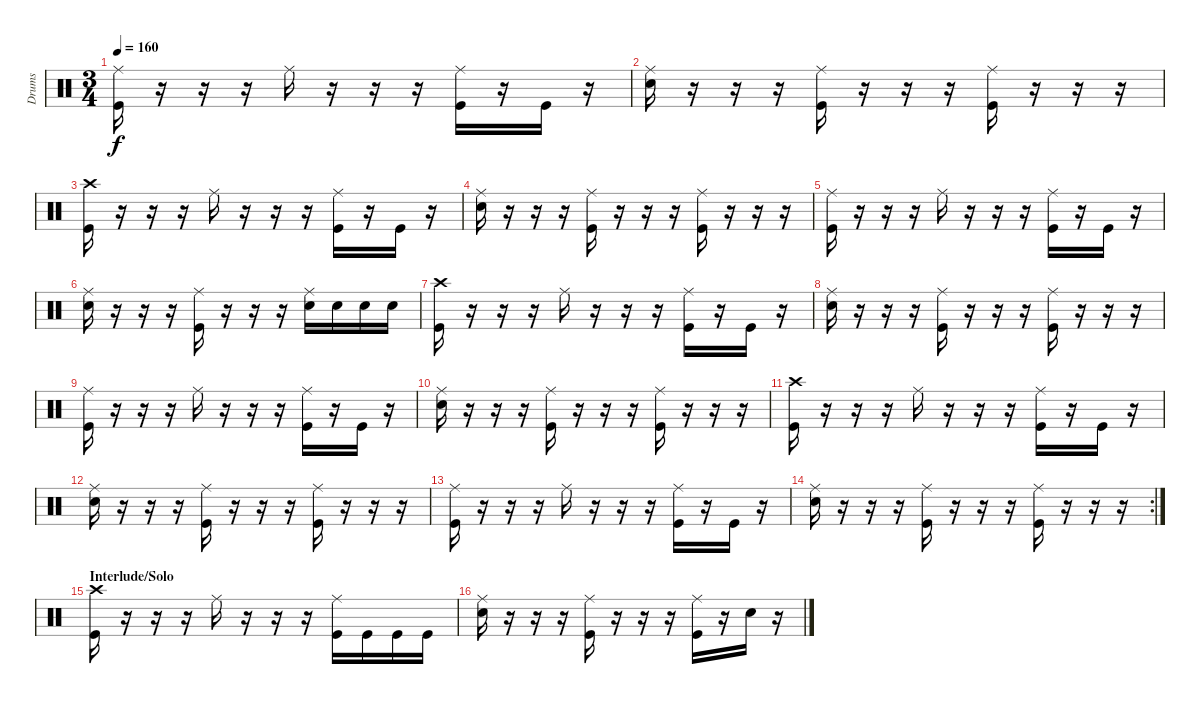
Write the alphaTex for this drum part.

\track ("Drums" "Drums") {instrument percussion}
\staff {score}
\articulation defaults
\ts (3 4)
\tempo 160
\clef neutral
\ks c
("Ride (middle)" "Kick (hit)").16{dy f} r.16 r.16 r.16 "Ride (middle)".16 r.16 r.16 r.16 ("Ride (middle)" "Kick (hit)").16 r.16 "Kick (hit)".16 r.16 |
("Ride (middle)" "Snare (hit) 2").16 r.16 r.16 r.16 ("Ride (middle)" "Kick (hit)").16 r.16 r.16 r.16 ("Ride (middle)" "Kick (hit)").16 r.16 r.16 r.16 |
("Crash high (hit)" "Kick (hit)").16 r.16 r.16 r.16 "Ride (middle)".16 r.16 r.16 r.16 ("Ride (middle)" "Kick (hit)").16 r.16 "Kick (hit)".16 r.16 |
("Ride (middle)" "Snare (hit) 2").16 r.16 r.16 r.16 ("Ride (middle)" "Kick (hit)").16 r.16 r.16 r.16 ("Ride (middle)" "Kick (hit)").16 r.16 r.16 r.16 |
("Ride (middle)" "Kick (hit)").16 r.16 r.16 r.16 "Ride (middle)".16 r.16 r.16 r.16 ("Ride (middle)" "Kick (hit)").16 r.16 "Kick (hit)".16 r.16 |
("Ride (middle)" "Snare (hit) 2").16 r.16 r.16 r.16 ("Ride (middle)" "Kick (hit)").16 r.16 r.16 r.16 ("Ride (middle)" "Snare (hit) 2").16 "Snare (hit) 2".16 "Snare (hit) 2".16 "Snare (hit) 2".16 |
("Crash high (hit)" "Kick (hit)").16 r.16 r.16 r.16 "Ride (middle)".16 r.16 r.16 r.16 ("Ride (middle)" "Kick (hit)").16 r.16 "Kick (hit)".16 r.16 |
("Ride (middle)" "Snare (hit) 2").16 r.16 r.16 r.16 ("Ride (middle)" "Kick (hit)").16 r.16 r.16 r.16 ("Ride (middle)" "Kick (hit)").16 r.16 r.16 r.16 |
("Ride (middle)" "Kick (hit)").16 r.16 r.16 r.16 "Ride (middle)".16 r.16 r.16 r.16 ("Ride (middle)" "Kick (hit)").16 r.16 "Kick (hit)".16 r.16 |
("Ride (middle)" "Snare (hit) 2").16 r.16 r.16 r.16 ("Ride (middle)" "Kick (hit)").16 r.16 r.16 r.16 ("Ride (middle)" "Kick (hit)").16 r.16 r.16 r.16 |
("Crash high (hit)" "Kick (hit)").16 r.16 r.16 r.16 "Ride (middle)".16 r.16 r.16 r.16 ("Ride (middle)" "Kick (hit)").16 r.16 "Kick (hit)".16 r.16 |
("Ride (middle)" "Snare (hit) 2").16 r.16 r.16 r.16 ("Ride (middle)" "Kick (hit)").16 r.16 r.16 r.16 ("Ride (middle)" "Kick (hit)").16 r.16 r.16 r.16 |
("Ride (middle)" "Kick (hit)").16 r.16 r.16 r.16 "Ride (middle)".16 r.16 r.16 r.16 ("Ride (middle)" "Kick (hit)").16 r.16 "Kick (hit)".16 r.16 |
\rc 2
("Ride (middle)" "Snare (hit) 2").16 r.16 r.16 r.16 ("Ride (middle)" "Kick (hit)").16 r.16 r.16 r.16 ("Ride (middle)" "Kick (hit)").16 r.16 r.16 r.16 |
\section ("" "Interlude/Solo")
("Crash high (hit)" "Kick (hit)").16 r.16 r.16 r.16 "Ride (middle)".16 r.16 r.16 r.16 ("Ride (middle)" "Kick (hit)").16 "Kick (hit)".16 "Kick (hit)".16 "Kick (hit)".16 |
("Ride (middle)" "Snare (hit) 2").16 r.16 r.16 r.16 ("Ride (middle)" "Kick (hit)").16 r.16 r.16 r.16 ("Ride (middle)" "Kick (hit)").16 r.16 "Snare (hit) 2".16 r.16
